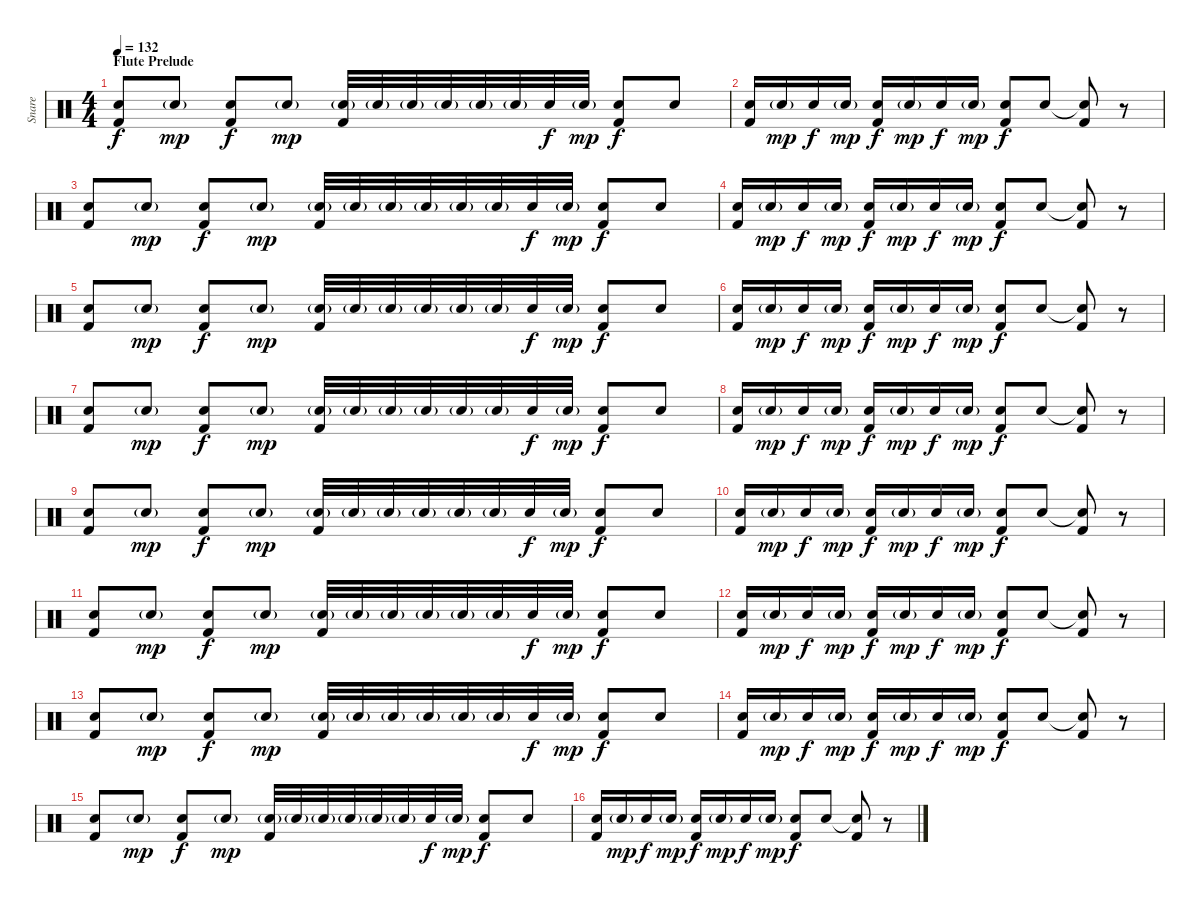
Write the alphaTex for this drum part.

\track ("Snare" "Snare") {instrument percussion}
\staff {score}
\articulation defaults
\ts (4 4)
\section ("" "Flute Prelude")
\tempo 132
\clef neutral
\ks c
("Snare (hit) 2" "Kick (hit) 2").8{dy f volume 13} "Snare (hit) 2"{g}.8{dy mp} ("Snare (hit) 2" "Kick (hit) 2").8{dy f} "Snare (hit) 2"{g}.8{dy mp} ("Snare (hit) 2"{g} "Kick (hit) 2").32 "Snare (hit) 2"{g}.32 "Snare (hit) 2"{g}.32 "Snare (hit) 2"{g}.32 "Snare (hit) 2"{g}.32 "Snare (hit) 2"{g}.32 "Snare (hit) 2".32{dy f} "Snare (hit) 2"{g}.32{dy mp} ("Snare (hit) 2" "Kick (hit) 2").8{dy f} "Snare (hit) 2".8 |
("Snare (hit) 2" "Kick (hit) 2").16 "Snare (hit) 2"{g}.16{dy mp} "Snare (hit) 2".16{dy f} "Snare (hit) 2"{g}.16{dy mp} ("Snare (hit) 2" "Kick (hit) 2").16{dy f} "Snare (hit) 2"{g}.16{dy mp} "Snare (hit) 2".16{dy f} "Snare (hit) 2"{g}.16{dy mp} ("Snare (hit) 2" "Kick (hit) 2").8{dy f} "Snare (hit) 2".8 ("Snare (hit)"{t} "Kick (hit) 2").8 r.8 |
("Snare (hit) 2" "Kick (hit) 2").8 "Snare (hit) 2"{g}.8{dy mp} ("Snare (hit) 2" "Kick (hit) 2").8{dy f} "Snare (hit) 2"{g}.8{dy mp} ("Snare (hit) 2"{g} "Kick (hit) 2").32 "Snare (hit) 2"{g}.32 "Snare (hit) 2"{g}.32 "Snare (hit) 2"{g}.32 "Snare (hit) 2"{g}.32 "Snare (hit) 2"{g}.32 "Snare (hit) 2".32{dy f} "Snare (hit) 2"{g}.32{dy mp} ("Snare (hit) 2" "Kick (hit) 2").8{dy f} "Snare (hit) 2".8 |
("Snare (hit) 2" "Kick (hit) 2").16 "Snare (hit) 2"{g}.16{dy mp} "Snare (hit) 2".16{dy f} "Snare (hit) 2"{g}.16{dy mp} ("Snare (hit) 2" "Kick (hit) 2").16{dy f} "Snare (hit) 2"{g}.16{dy mp} "Snare (hit) 2".16{dy f} "Snare (hit) 2"{g}.16{dy mp} ("Snare (hit) 2" "Kick (hit) 2").8{dy f} "Snare (hit) 2".8 ("Snare (hit)"{t} "Kick (hit) 2").8 r.8 |
("Snare (hit) 2" "Kick (hit) 2").8 "Snare (hit) 2"{g}.8{dy mp} ("Snare (hit) 2" "Kick (hit) 2").8{dy f} "Snare (hit) 2"{g}.8{dy mp} ("Snare (hit) 2"{g} "Kick (hit) 2").32 "Snare (hit) 2"{g}.32 "Snare (hit) 2"{g}.32 "Snare (hit) 2"{g}.32 "Snare (hit) 2"{g}.32 "Snare (hit) 2"{g}.32 "Snare (hit) 2".32{dy f} "Snare (hit) 2"{g}.32{dy mp} ("Snare (hit) 2" "Kick (hit) 2").8{dy f} "Snare (hit) 2".8 |
("Snare (hit) 2" "Kick (hit) 2").16 "Snare (hit) 2"{g}.16{dy mp} "Snare (hit) 2".16{dy f} "Snare (hit) 2"{g}.16{dy mp} ("Snare (hit) 2" "Kick (hit) 2").16{dy f} "Snare (hit) 2"{g}.16{dy mp} "Snare (hit) 2".16{dy f} "Snare (hit) 2"{g}.16{dy mp} ("Snare (hit) 2" "Kick (hit) 2").8{dy f} "Snare (hit) 2".8 ("Snare (hit)"{t} "Kick (hit) 2").8 r.8 |
("Snare (hit) 2" "Kick (hit) 2").8 "Snare (hit) 2"{g}.8{dy mp} ("Snare (hit) 2" "Kick (hit) 2").8{dy f} "Snare (hit) 2"{g}.8{dy mp} ("Snare (hit) 2"{g} "Kick (hit) 2").32 "Snare (hit) 2"{g}.32 "Snare (hit) 2"{g}.32 "Snare (hit) 2"{g}.32 "Snare (hit) 2"{g}.32 "Snare (hit) 2"{g}.32 "Snare (hit) 2".32{dy f} "Snare (hit) 2"{g}.32{dy mp} ("Snare (hit) 2" "Kick (hit) 2").8{dy f} "Snare (hit) 2".8 |
("Snare (hit) 2" "Kick (hit) 2").16 "Snare (hit) 2"{g}.16{dy mp} "Snare (hit) 2".16{dy f} "Snare (hit) 2"{g}.16{dy mp} ("Snare (hit) 2" "Kick (hit) 2").16{dy f} "Snare (hit) 2"{g}.16{dy mp} "Snare (hit) 2".16{dy f} "Snare (hit) 2"{g}.16{dy mp} ("Snare (hit) 2" "Kick (hit) 2").8{dy f} "Snare (hit) 2".8 ("Snare (hit)"{t} "Kick (hit) 2").8 r.8 |
("Snare (hit) 2" "Kick (hit) 2").8 "Snare (hit) 2"{g}.8{dy mp} ("Snare (hit) 2" "Kick (hit) 2").8{dy f} "Snare (hit) 2"{g}.8{dy mp} ("Snare (hit) 2"{g} "Kick (hit) 2").32 "Snare (hit) 2"{g}.32 "Snare (hit) 2"{g}.32 "Snare (hit) 2"{g}.32 "Snare (hit) 2"{g}.32 "Snare (hit) 2"{g}.32 "Snare (hit) 2".32{dy f} "Snare (hit) 2"{g}.32{dy mp} ("Snare (hit) 2" "Kick (hit) 2").8{dy f} "Snare (hit) 2".8 |
("Snare (hit) 2" "Kick (hit) 2").16 "Snare (hit) 2"{g}.16{dy mp} "Snare (hit) 2".16{dy f} "Snare (hit) 2"{g}.16{dy mp} ("Snare (hit) 2" "Kick (hit) 2").16{dy f} "Snare (hit) 2"{g}.16{dy mp} "Snare (hit) 2".16{dy f} "Snare (hit) 2"{g}.16{dy mp} ("Snare (hit) 2" "Kick (hit) 2").8{dy f} "Snare (hit) 2".8 ("Snare (hit)"{t} "Kick (hit) 2").8 r.8 |
("Snare (hit) 2" "Kick (hit) 2").8 "Snare (hit) 2"{g}.8{dy mp} ("Snare (hit) 2" "Kick (hit) 2").8{dy f} "Snare (hit) 2"{g}.8{dy mp} ("Snare (hit) 2"{g} "Kick (hit) 2").32 "Snare (hit) 2"{g}.32 "Snare (hit) 2"{g}.32 "Snare (hit) 2"{g}.32 "Snare (hit) 2"{g}.32 "Snare (hit) 2"{g}.32 "Snare (hit) 2".32{dy f} "Snare (hit) 2"{g}.32{dy mp} ("Snare (hit) 2" "Kick (hit) 2").8{dy f} "Snare (hit) 2".8 |
("Snare (hit) 2" "Kick (hit) 2").16 "Snare (hit) 2"{g}.16{dy mp} "Snare (hit) 2".16{dy f} "Snare (hit) 2"{g}.16{dy mp} ("Snare (hit) 2" "Kick (hit) 2").16{dy f} "Snare (hit) 2"{g}.16{dy mp} "Snare (hit) 2".16{dy f} "Snare (hit) 2"{g}.16{dy mp} ("Snare (hit) 2" "Kick (hit) 2").8{dy f} "Snare (hit) 2".8 ("Snare (hit)"{t} "Kick (hit) 2").8 r.8 |
("Snare (hit) 2" "Kick (hit) 2").8 "Snare (hit) 2"{g}.8{dy mp} ("Snare (hit) 2" "Kick (hit) 2").8{dy f} "Snare (hit) 2"{g}.8{dy mp} ("Snare (hit) 2"{g} "Kick (hit) 2").32 "Snare (hit) 2"{g}.32 "Snare (hit) 2"{g}.32 "Snare (hit) 2"{g}.32 "Snare (hit) 2"{g}.32 "Snare (hit) 2"{g}.32 "Snare (hit) 2".32{dy f} "Snare (hit) 2"{g}.32{dy mp} ("Snare (hit) 2" "Kick (hit) 2").8{dy f} "Snare (hit) 2".8 |
("Snare (hit) 2" "Kick (hit) 2").16 "Snare (hit) 2"{g}.16{dy mp} "Snare (hit) 2".16{dy f} "Snare (hit) 2"{g}.16{dy mp} ("Snare (hit) 2" "Kick (hit) 2").16{dy f} "Snare (hit) 2"{g}.16{dy mp} "Snare (hit) 2".16{dy f} "Snare (hit) 2"{g}.16{dy mp} ("Snare (hit) 2" "Kick (hit) 2").8{dy f} "Snare (hit) 2".8 ("Snare (hit)"{t} "Kick (hit) 2").8 r.8 |
("Snare (hit) 2" "Kick (hit) 2").8 "Snare (hit) 2"{g}.8{dy mp} ("Snare (hit) 2" "Kick (hit) 2").8{dy f} "Snare (hit) 2"{g}.8{dy mp} ("Snare (hit) 2"{g} "Kick (hit) 2").32 "Snare (hit) 2"{g}.32 "Snare (hit) 2"{g}.32 "Snare (hit) 2"{g}.32 "Snare (hit) 2"{g}.32 "Snare (hit) 2"{g}.32 "Snare (hit) 2".32{dy f} "Snare (hit) 2"{g}.32{dy mp} ("Snare (hit) 2" "Kick (hit) 2").8{dy f} "Snare (hit) 2".8 |
("Snare (hit) 2" "Kick (hit) 2").16 "Snare (hit) 2"{g}.16{dy mp} "Snare (hit) 2".16{dy f} "Snare (hit) 2"{g}.16{dy mp} ("Snare (hit) 2" "Kick (hit) 2").16{dy f} "Snare (hit) 2"{g}.16{dy mp} "Snare (hit) 2".16{dy f} "Snare (hit) 2"{g}.16{dy mp} ("Snare (hit) 2" "Kick (hit) 2").8{dy f} "Snare (hit) 2".8 ("Snare (hit)"{t} "Kick (hit) 2").8 r.8
